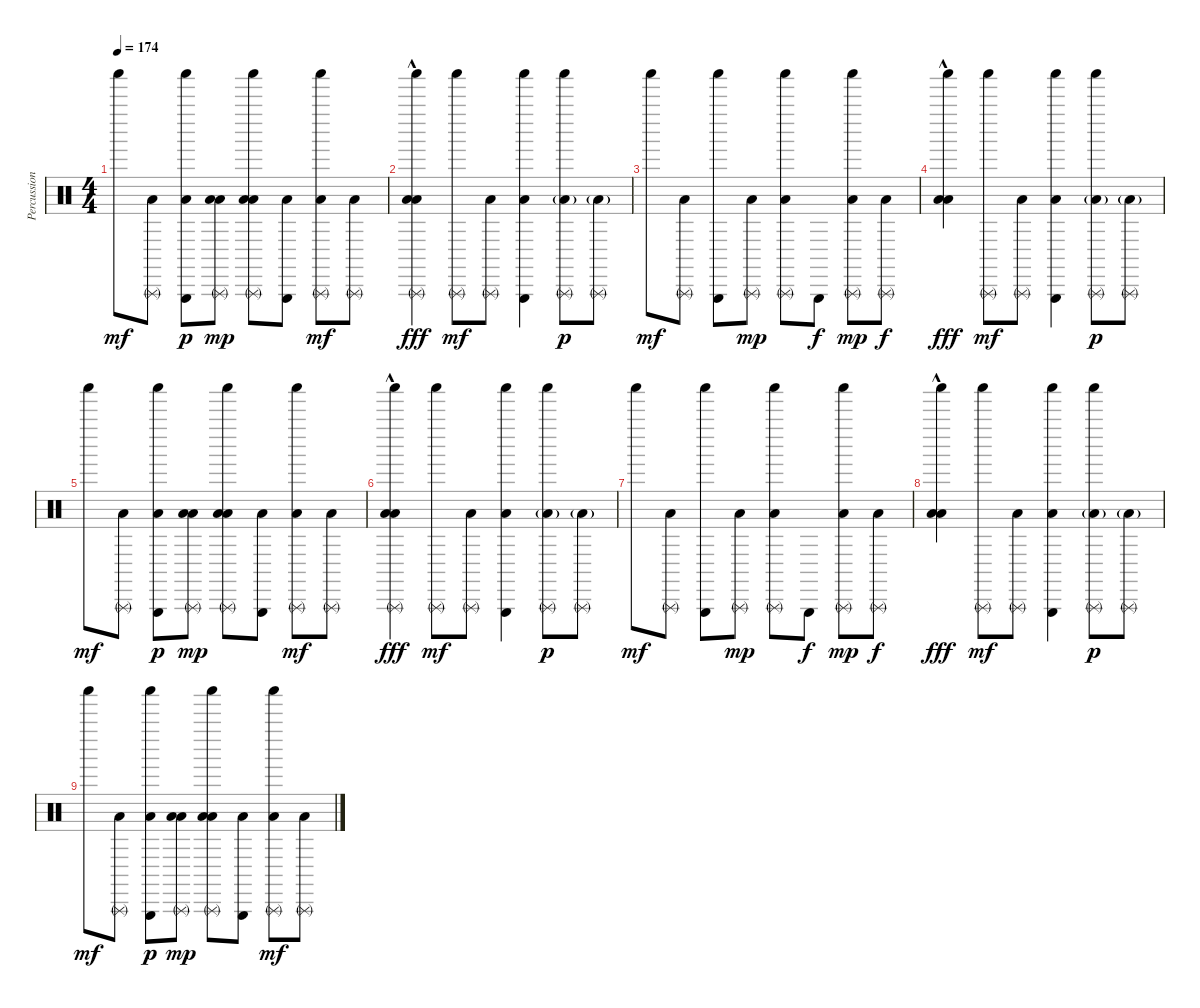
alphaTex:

\track ("Percussion" "Percussion") {instrument percussion}
\staff {score}
\articulation defaults
\ts (4 4)
\tempo 174
\clef neutral
\ks c "Shaker (hit)".8{dy mf}
("Triangle (rnute)" "Low Floor Tom (hit)").8 ("Shaker (hit)" "Triangle (hit)" "Low Tom (hit)").8{dy p} ("Triangle (rnute)" "Low Tom (hit)" "Low Floor Tom (hit)").8{dy mp} ("Shaker (hit)" "Triangle (rnute)" "Low Tom (hit)" "Low Floor Tom (hit)").8 ("Triangle (hit)" "Low Tom (hit)").8 ("Shaker (hit)" "Triangle (rnute)" "Low Tom (hit)").8{dy mf} ("Triangle (rnute)" "Low Tom (hit)").8 |
("Shaker (hit)" "Triangle (rnute)" "Low Tom (hit)"{hac} "Low Floor Tom (hit)"{hac}).4{dy fff} ("Shaker (hit)" "Triangle (rnute)").8{dy mf} ("Triangle (rnute)" "Low Floor Tom (hit)").8 ("Shaker (hit)" "Triangle (hit)" "Low Floor Tom (hit)").4 ("Shaker (hit)" "Triangle (rnute)" "Low Floor Tom (hit)"{g}).8{dy p} ("Triangle (rnute)" "Low Floor Tom (hit)"{g}).8 |
"Shaker (hit)".8{dy mf} ("Triangle (rnute)" "Low Floor Tom (hit)").8 ("Shaker (hit)" "Triangle (hit)").8 ("Triangle (rnute)" "Low Floor Tom (hit)").8{dy mp} ("Shaker (hit)" "Triangle (rnute)" "Low Floor Tom (hit)").8 "Triangle (hit)".8{dy f} ("Shaker (hit)" "Triangle (rnute)" "Low Tom (hit)").8{dy mp} ("Triangle (rnute)" "Low Tom (hit)").8{dy f} |
("Shaker (hit)" "Low Tom (hit)"{hac} "Low Floor Tom (hit)"{hac}).4{dy fff} ("Shaker (hit)" "Triangle (rnute)").8{dy mf} ("Triangle (rnute)" "Low Floor Tom (hit)").8 ("Shaker (hit)" "Triangle (hit)" "Low Floor Tom (hit)").4 ("Shaker (hit)" "Triangle (rnute)" "Low Floor Tom (hit)"{g}).8{dy p} ("Triangle (rnute)" "Low Floor Tom (hit)"{g}).8 |
"Shaker (hit)".8{dy mf} ("Triangle (rnute)" "Low Floor Tom (hit)").8 ("Shaker (hit)" "Triangle (hit)" "Low Tom (hit)").8{dy p} ("Triangle (rnute)" "Low Tom (hit)" "Low Floor Tom (hit)").8{dy mp} ("Shaker (hit)" "Triangle (rnute)" "Low Tom (hit)" "Low Floor Tom (hit)").8 ("Triangle (hit)" "Low Tom (hit)").8 ("Shaker (hit)" "Triangle (rnute)" "Low Tom (hit)").8{dy mf} ("Triangle (rnute)" "Low Tom (hit)").8 |
("Shaker (hit)" "Triangle (rnute)" "Low Tom (hit)"{hac} "Low Floor Tom (hit)"{hac}).4{dy fff} ("Shaker (hit)" "Triangle (rnute)").8{dy mf} ("Triangle (rnute)" "Low Floor Tom (hit)").8 ("Shaker (hit)" "Triangle (hit)" "Low Floor Tom (hit)").4 ("Shaker (hit)" "Triangle (rnute)" "Low Floor Tom (hit)"{g}).8{dy p} ("Triangle (rnute)" "Low Floor Tom (hit)"{g}).8 |
"Shaker (hit)".8{dy mf} ("Triangle (rnute)" "Low Floor Tom (hit)").8 ("Shaker (hit)" "Triangle (hit)").8 ("Triangle (rnute)" "Low Floor Tom (hit)").8{dy mp} ("Shaker (hit)" "Triangle (rnute)" "Low Floor Tom (hit)").8 "Triangle (hit)".8{dy f} ("Shaker (hit)" "Triangle (rnute)" "Low Tom (hit)").8{dy mp} ("Triangle (rnute)" "Low Tom (hit)").8{dy f} |
("Shaker (hit)" "Low Tom (hit)"{hac} "Low Floor Tom (hit)"{hac}).4{dy fff} ("Shaker (hit)" "Triangle (rnute)").8{dy mf} ("Triangle (rnute)" "Low Floor Tom (hit)").8 ("Shaker (hit)" "Triangle (hit)" "Low Floor Tom (hit)").4 ("Shaker (hit)" "Triangle (rnute)" "Low Floor Tom (hit)"{g}).8{dy p} ("Triangle (rnute)" "Low Floor Tom (hit)"{g}).8 |
"Shaker (hit)".8{dy mf} ("Triangle (rnute)" "Low Floor Tom (hit)").8 ("Shaker (hit)" "Triangle (hit)" "Low Tom (hit)").8{dy p} ("Triangle (rnute)" "Low Tom (hit)" "Low Floor Tom (hit)").8{dy mp} ("Shaker (hit)" "Triangle (rnute)" "Low Tom (hit)" "Low Floor Tom (hit)").8 ("Triangle (hit)" "Low Tom (hit)").8 ("Shaker (hit)" "Triangle (rnute)" "Low Tom (hit)").8{dy mf} ("Triangle (rnute)" "Low Tom (hit)").8
